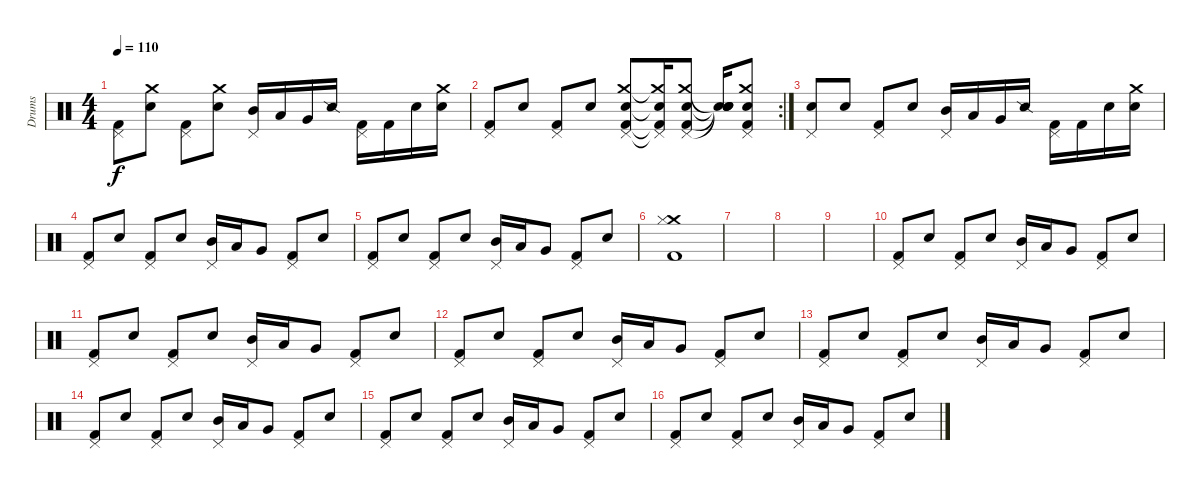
\track ("Drums" "Drums") {instrument percussion}
\staff {score}
\articulation defaults
\ts (4 4)
\tempo 110
\clef neutral
\ks c
("Pedal Hi-Hat (hit)" "Kick (hit) 2").8{dy f} ("Crash medium (hit)" "Snare (hit) 2").8 ("Pedal Hi-Hat (hit)" "Kick (hit) 2").8 ("Crash medium (hit)" "Snare (hit) 2").8 ("Pedal Hi-Hat (hit)" "Mid Tom (hit)").16 "Low Tom (hit)".16 "Very Low Tom (hit)".16 "Snare (side stick) 2".16 ("Pedal Hi-Hat (hit)" "Kick (hit) 2").16 "Kick (hit) 2".16 "Snare (hit) 2".16 ("Crash medium (hit)" "Snare (hit) 2").16 |
\rc 2
("Pedal Hi-Hat (hit)" "Kick (hit) 2").8 "Snare (hit) 2".8 ("Pedal Hi-Hat (hit)" "Kick (hit) 2").8 "Snare (hit) 2".8 ("Pedal Hi-Hat (hit)" "Crash medium (hit)" "Kick (hit) 2" "Snare (hit) 2").8 ("Pedal Hi-Hat (hit)"{t} "Crash medium (hit)"{t} "Kick (hit) 2"{t} "Snare (hit) 2"{t}).16 ("Pedal Hi-Hat (hit)" "Crash medium (hit)" "Kick (hit) 2" "Snare (hit) 2").8 ("Snare (hit)"{t} "Snare (hit)"{t} "Snare (hit) 2"{t} "Snare (hit)"{t}).16 ("Pedal Hi-Hat (hit)" "Crash medium (hit)" "Kick (hit) 2" "Snare (hit) 2").8 |
("Pedal Hi-Hat (hit)" "Snare (hit) 2").8 "Snare (hit) 2".8 ("Pedal Hi-Hat (hit)" "Kick (hit) 2").8 "Snare (hit) 2".8 ("Pedal Hi-Hat (hit)" "Mid Tom (hit)").16 "Low Tom (hit)".16 "Very Low Tom (hit)".16 "Snare (side stick) 2".16 ("Pedal Hi-Hat (hit)" "Kick (hit) 2").16 "Kick (hit) 2".16 "Snare (hit) 2".16 ("Crash medium (hit)" "Snare (hit) 2").16 |
("Pedal Hi-Hat (hit)" "Kick (hit) 2").8 "Snare (hit) 2".8 ("Pedal Hi-Hat (hit)" "Kick (hit) 2").8 "Snare (hit) 2".8 ("Pedal Hi-Hat (hit)" "Mid Tom (hit)").16 "Low Tom (hit)".16 "Very Low Tom (hit)".8 ("Pedal Hi-Hat (hit)" "Kick (hit) 2").8 "Snare (hit) 2".8 |
("Pedal Hi-Hat (hit)" "Kick (hit) 2").8 "Snare (hit) 2".8 ("Pedal Hi-Hat (hit)" "Kick (hit) 2").8 "Snare (hit) 2".8 ("Pedal Hi-Hat (hit)" "Mid Tom (hit)").16 "Low Tom (hit)".16 "Very Low Tom (hit)".8 ("Pedal Hi-Hat (hit)" "Kick (hit) 2").8 "Snare (hit) 2".8 |
("Crash medium (hit)" "Hi-Hat (closed)" "Kick (hit) 2").1 |
|
|
|
("Pedal Hi-Hat (hit)" "Kick (hit) 2").8 "Snare (hit) 2".8 ("Pedal Hi-Hat (hit)" "Kick (hit) 2").8 "Snare (hit) 2".8 ("Pedal Hi-Hat (hit)" "Mid Tom (hit)").16 "Low Tom (hit)".16 "Very Low Tom (hit)".8 ("Pedal Hi-Hat (hit)" "Kick (hit) 2").8 "Snare (hit) 2".8 |
("Pedal Hi-Hat (hit)" "Kick (hit) 2").8 "Snare (hit) 2".8 ("Pedal Hi-Hat (hit)" "Kick (hit) 2").8 "Snare (hit) 2".8 ("Pedal Hi-Hat (hit)" "Mid Tom (hit)").16 "Low Tom (hit)".16 "Very Low Tom (hit)".8 ("Pedal Hi-Hat (hit)" "Kick (hit) 2").8 "Snare (hit) 2".8 |
("Pedal Hi-Hat (hit)" "Kick (hit) 2").8 "Snare (hit) 2".8 ("Pedal Hi-Hat (hit)" "Kick (hit) 2").8 "Snare (hit) 2".8 ("Pedal Hi-Hat (hit)" "Mid Tom (hit)").16 "Low Tom (hit)".16 "Very Low Tom (hit)".8 ("Pedal Hi-Hat (hit)" "Kick (hit) 2").8 "Snare (hit) 2".8 |
("Pedal Hi-Hat (hit)" "Kick (hit) 2").8 "Snare (hit) 2".8 ("Pedal Hi-Hat (hit)" "Kick (hit) 2").8 "Snare (hit) 2".8 ("Pedal Hi-Hat (hit)" "Mid Tom (hit)").16 "Low Tom (hit)".16 "Very Low Tom (hit)".8 ("Pedal Hi-Hat (hit)" "Kick (hit) 2").8 "Snare (hit) 2".8 |
("Pedal Hi-Hat (hit)" "Kick (hit) 2").8 "Snare (hit) 2".8 ("Pedal Hi-Hat (hit)" "Kick (hit) 2").8 "Snare (hit) 2".8 ("Pedal Hi-Hat (hit)" "Mid Tom (hit)").16 "Low Tom (hit)".16 "Very Low Tom (hit)".8 ("Pedal Hi-Hat (hit)" "Kick (hit) 2").8 "Snare (hit) 2".8 |
("Pedal Hi-Hat (hit)" "Kick (hit) 2").8 "Snare (hit) 2".8 ("Pedal Hi-Hat (hit)" "Kick (hit) 2").8 "Snare (hit) 2".8 ("Pedal Hi-Hat (hit)" "Mid Tom (hit)").16 "Low Tom (hit)".16 "Very Low Tom (hit)".8 ("Pedal Hi-Hat (hit)" "Kick (hit) 2").8 "Snare (hit) 2".8 |
("Pedal Hi-Hat (hit)" "Kick (hit) 2").8 "Snare (hit) 2".8 ("Pedal Hi-Hat (hit)" "Kick (hit) 2").8 "Snare (hit) 2".8 ("Pedal Hi-Hat (hit)" "Mid Tom (hit)").16 "Low Tom (hit)".16 "Very Low Tom (hit)".8 ("Pedal Hi-Hat (hit)" "Kick (hit) 2").8 "Snare (hit) 2".8
